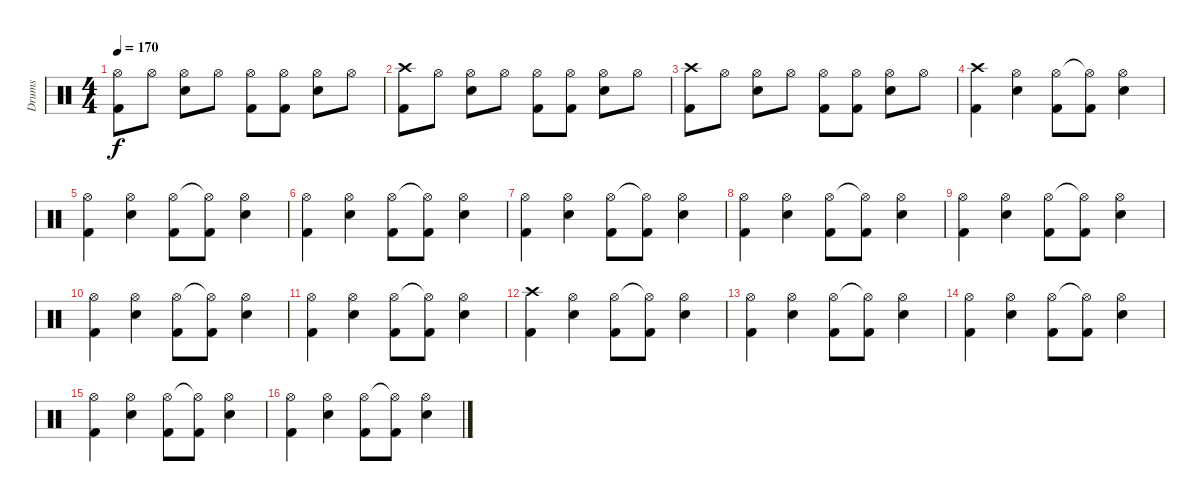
\track ("Drums" "Drums") {instrument percussion}
\staff {score}
\articulation defaults
\ts (4 4)
\tempo 170
\clef neutral
\ks c
("Hi-Hat (open)" "Kick (hit) 2").8{dy f} "Hi-Hat (open)".8 ("Hi-Hat (open)" "Snare (hit) 2").8 "Hi-Hat (open)".8 ("Hi-Hat (open)" "Kick (hit) 2").8 ("Hi-Hat (open)" "Kick (hit) 2").8 ("Hi-Hat (open)" "Snare (hit) 2").8 "Hi-Hat (open)".8 |
("Crash high (hit)" "Kick (hit) 2").8 "Hi-Hat (open)".8 ("Hi-Hat (open)" "Snare (hit) 2").8 "Hi-Hat (open)".8 ("Hi-Hat (open)" "Kick (hit) 2").8 ("Hi-Hat (open)" "Kick (hit) 2").8 ("Hi-Hat (open)" "Snare (hit) 2").8 "Hi-Hat (open)".8 |
("Crash high (hit)" "Kick (hit) 2").8 "Hi-Hat (open)".8 ("Hi-Hat (open)" "Snare (hit) 2").8 "Hi-Hat (open)".8 ("Hi-Hat (open)" "Kick (hit) 2").8 ("Hi-Hat (open)" "Kick (hit) 2").8 ("Hi-Hat (open)" "Snare (hit) 2").8 "Hi-Hat (open)".8 |
("Crash high (hit)" "Kick (hit) 2").4 ("Hi-Hat (open)" "Snare (hit) 2").4 ("Hi-Hat (open)" "Kick (hit) 2").8 ("Hi-Hat (open)"{t} "Kick (hit) 2").8 ("Hi-Hat (open)" "Snare (hit) 2").4 |
("Hi-Hat (open)" "Kick (hit) 2").4 ("Hi-Hat (open)" "Snare (hit) 2").4 ("Hi-Hat (open)" "Kick (hit) 2").8 ("Hi-Hat (open)"{t} "Kick (hit) 2").8 ("Hi-Hat (open)" "Snare (hit) 2").4 |
("Hi-Hat (open)" "Kick (hit) 2").4 ("Hi-Hat (open)" "Snare (hit) 2").4 ("Hi-Hat (open)" "Kick (hit) 2").8 ("Hi-Hat (open)"{t} "Kick (hit) 2").8 ("Hi-Hat (open)" "Snare (hit) 2").4 |
("Hi-Hat (open)" "Kick (hit) 2").4 ("Hi-Hat (open)" "Snare (hit) 2").4 ("Hi-Hat (open)" "Kick (hit) 2").8 ("Hi-Hat (open)"{t} "Kick (hit) 2").8 ("Hi-Hat (open)" "Snare (hit) 2").4 |
("Hi-Hat (open)" "Kick (hit) 2").4 ("Hi-Hat (open)" "Snare (hit) 2").4 ("Hi-Hat (open)" "Kick (hit) 2").8 ("Hi-Hat (open)"{t} "Kick (hit) 2").8 ("Hi-Hat (open)" "Snare (hit) 2").4 |
("Hi-Hat (open)" "Kick (hit) 2").4 ("Hi-Hat (open)" "Snare (hit) 2").4 ("Hi-Hat (open)" "Kick (hit) 2").8 ("Hi-Hat (open)"{t} "Kick (hit) 2").8 ("Hi-Hat (open)" "Snare (hit) 2").4 |
("Hi-Hat (open)" "Kick (hit) 2").4 ("Hi-Hat (open)" "Snare (hit) 2").4 ("Hi-Hat (open)" "Kick (hit) 2").8 ("Hi-Hat (open)"{t} "Kick (hit) 2").8 ("Hi-Hat (open)" "Snare (hit) 2").4 |
("Hi-Hat (open)" "Kick (hit) 2").4 ("Hi-Hat (open)" "Snare (hit) 2").4 ("Hi-Hat (open)" "Kick (hit) 2").8 ("Hi-Hat (open)"{t} "Kick (hit) 2").8 ("Hi-Hat (open)" "Snare (hit) 2").4 |
("Crash high (hit)" "Kick (hit) 2").4 ("Hi-Hat (open)" "Snare (hit) 2").4 ("Hi-Hat (open)" "Kick (hit) 2").8 ("Hi-Hat (open)"{t} "Kick (hit) 2").8 ("Hi-Hat (open)" "Snare (hit) 2").4 |
("Hi-Hat (open)" "Kick (hit) 2").4 ("Hi-Hat (open)" "Snare (hit) 2").4 ("Hi-Hat (open)" "Kick (hit) 2").8 ("Hi-Hat (open)"{t} "Kick (hit) 2").8 ("Hi-Hat (open)" "Snare (hit) 2").4 |
("Hi-Hat (open)" "Kick (hit) 2").4 ("Hi-Hat (open)" "Snare (hit) 2").4 ("Hi-Hat (open)" "Kick (hit) 2").8 ("Hi-Hat (open)"{t} "Kick (hit) 2").8 ("Hi-Hat (open)" "Snare (hit) 2").4 |
("Hi-Hat (open)" "Kick (hit) 2").4 ("Hi-Hat (open)" "Snare (hit) 2").4 ("Hi-Hat (open)" "Kick (hit) 2").8 ("Hi-Hat (open)"{t} "Kick (hit) 2").8 ("Hi-Hat (open)" "Snare (hit) 2").4 |
("Hi-Hat (open)" "Kick (hit) 2").4 ("Hi-Hat (open)" "Snare (hit) 2").4 ("Hi-Hat (open)" "Kick (hit) 2").8 ("Hi-Hat (open)"{t} "Kick (hit) 2").8 ("Hi-Hat (open)" "Snare (hit) 2").4
